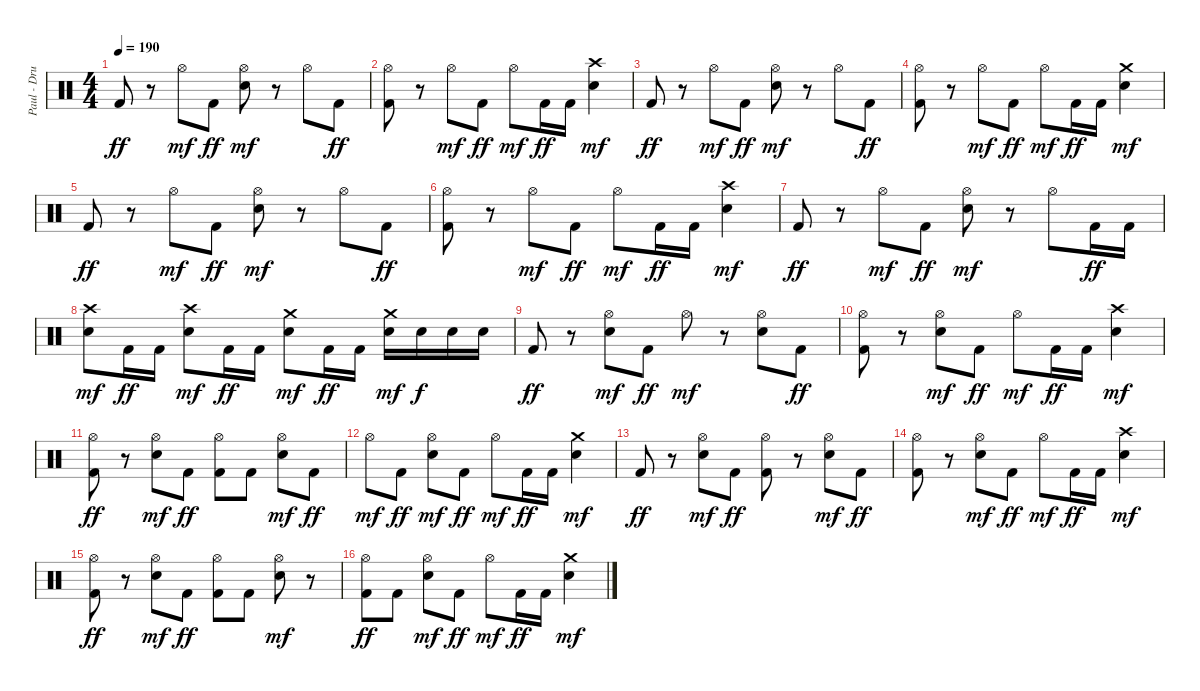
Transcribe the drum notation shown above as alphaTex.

\track ("Paul - Drums" "Paul - Dru") {instrument percussion}
\staff {score}
\articulation defaults
\ts (4 4)
\tempo 190
\clef neutral
\ks c "Kick (hit) 2".8{dy ff}
r.8 "Hi-Hat (open)".8{dy mf} "Kick (hit) 2".8{dy ff} ("Hi-Hat (open)" "Electric Snare (hit)").8{dy mf} r.8 "Hi-Hat (open)".8 "Kick (hit) 2".8{dy ff} |
("Hi-Hat (open)" "Kick (hit) 2").8 r.8 "Hi-Hat (open)".8{dy mf} "Kick (hit) 2".8{dy ff} "Hi-Hat (open)".8{dy mf} "Kick (hit) 2".16{dy ff} "Kick (hit) 2".16 ("Crash high (hit)" "Electric Snare (hit)").4{dy mf} |
"Kick (hit) 2".8{dy ff} r.8 "Hi-Hat (open)".8{dy mf} "Kick (hit) 2".8{dy ff} ("Hi-Hat (open)" "Electric Snare (hit)").8{dy mf} r.8 "Hi-Hat (open)".8 "Kick (hit) 2".8{dy ff} |
("Hi-Hat (open)" "Kick (hit) 2").8 r.8 "Hi-Hat (open)".8{dy mf} "Kick (hit) 2".8{dy ff} "Hi-Hat (open)".8{dy mf} "Kick (hit) 2".16{dy ff} "Kick (hit) 2".16 ("Crash medium (hit)" "Electric Snare (hit)").4{dy mf} |
"Kick (hit) 2".8{dy ff} r.8 "Hi-Hat (open)".8{dy mf} "Kick (hit) 2".8{dy ff} ("Hi-Hat (open)" "Electric Snare (hit)").8{dy mf} r.8 "Hi-Hat (open)".8 "Kick (hit) 2".8{dy ff} |
("Hi-Hat (open)" "Kick (hit) 2").8 r.8 "Hi-Hat (open)".8{dy mf} "Kick (hit) 2".8{dy ff} "Hi-Hat (open)".8{dy mf} "Kick (hit) 2".16{dy ff} "Kick (hit) 2".16 ("Crash high (hit)" "Electric Snare (hit)").4{dy mf} |
"Kick (hit) 2".8{dy ff} r.8 "Hi-Hat (open)".8{dy mf} "Kick (hit) 2".8{dy ff} ("Hi-Hat (open)" "Electric Snare (hit)").8{dy mf} r.8 "Hi-Hat (open)".8 "Kick (hit) 2".16{dy ff} "Kick (hit) 2".16 |
("Crash high (hit)" "Electric Snare (hit)").8{dy mf} "Kick (hit) 2".16{dy ff} "Kick (hit) 2".16 ("Crash high (hit)" "Electric Snare (hit)").8{dy mf} "Kick (hit) 2".16{dy ff} "Kick (hit) 2".16 ("Crash medium (hit)" "Electric Snare (hit)").8{dy mf} "Kick (hit) 2".16{dy ff} "Kick (hit) 2".16 ("Crash medium (hit)" "Electric Snare (hit)").16{dy mf} "Electric Snare (hit)".16{dy f} "Electric Snare (hit)".16 "Electric Snare (hit)".16 |
"Kick (hit) 2".8{dy ff} r.8 ("Hi-Hat (open)" "Electric Snare (hit)").8{dy mf} "Kick (hit) 2".8{dy ff} "Hi-Hat (open)".8{dy mf} r.8 ("Hi-Hat (open)" "Electric Snare (hit)").8 "Kick (hit) 2".8{dy ff} |
("Hi-Hat (open)" "Kick (hit) 2").8 r.8 ("Hi-Hat (open)" "Electric Snare (hit)").8{dy mf} "Kick (hit) 2".8{dy ff} "Hi-Hat (open)".8{dy mf} "Kick (hit) 2".16{dy ff} "Kick (hit) 2".16 ("Crash high (hit)" "Electric Snare (hit)").4{dy mf} |
("Hi-Hat (open)" "Kick (hit) 2").8{dy ff} r.8 ("Hi-Hat (open)" "Electric Snare (hit)").8{dy mf} "Kick (hit) 2".8{dy ff} ("Hi-Hat (open)" "Kick (hit) 2").8 "Kick (hit) 2".8 ("Hi-Hat (open)" "Electric Snare (hit)").8{dy mf} "Kick (hit) 2".8{dy ff} |
"Hi-Hat (open)".8{dy mf} "Kick (hit) 2".8{dy ff} ("Hi-Hat (open)" "Electric Snare (hit)").8{dy mf} "Kick (hit) 2".8{dy ff} "Hi-Hat (open)".8{dy mf} "Kick (hit) 2".16{dy ff} "Kick (hit) 2".16 ("Crash medium (hit)" "Electric Snare (hit)").4{dy mf} |
"Kick (hit) 2".8{dy ff} r.8 ("Hi-Hat (open)" "Electric Snare (hit)").8{dy mf} "Kick (hit) 2".8{dy ff} ("Hi-Hat (open)" "Kick (hit) 2").8 r.8 ("Hi-Hat (open)" "Electric Snare (hit)").8{dy mf} "Kick (hit) 2".8{dy ff} |
("Hi-Hat (open)" "Kick (hit) 2").8 r.8 ("Hi-Hat (open)" "Electric Snare (hit)").8{dy mf} "Kick (hit) 2".8{dy ff} "Hi-Hat (open)".8{dy mf} "Kick (hit) 2".16{dy ff} "Kick (hit) 2".16 ("Crash high (hit)" "Electric Snare (hit)").4{dy mf} |
("Hi-Hat (open)" "Kick (hit) 2").8{dy ff} r.8 ("Hi-Hat (open)" "Electric Snare (hit)").8{dy mf} "Kick (hit) 2".8{dy ff} ("Hi-Hat (open)" "Kick (hit) 2").8 "Kick (hit) 2".8 ("Hi-Hat (open)" "Electric Snare (hit)").8{dy mf} r.8 |
("Hi-Hat (open)" "Kick (hit) 2").8{dy ff} "Kick (hit) 2".8 ("Hi-Hat (open)" "Electric Snare (hit)").8{dy mf} "Kick (hit) 2".8{dy ff} "Hi-Hat (open)".8{dy mf} "Kick (hit) 2".16{dy ff} "Kick (hit) 2".16 ("Crash medium (hit)" "Electric Snare (hit)").4{dy mf}
